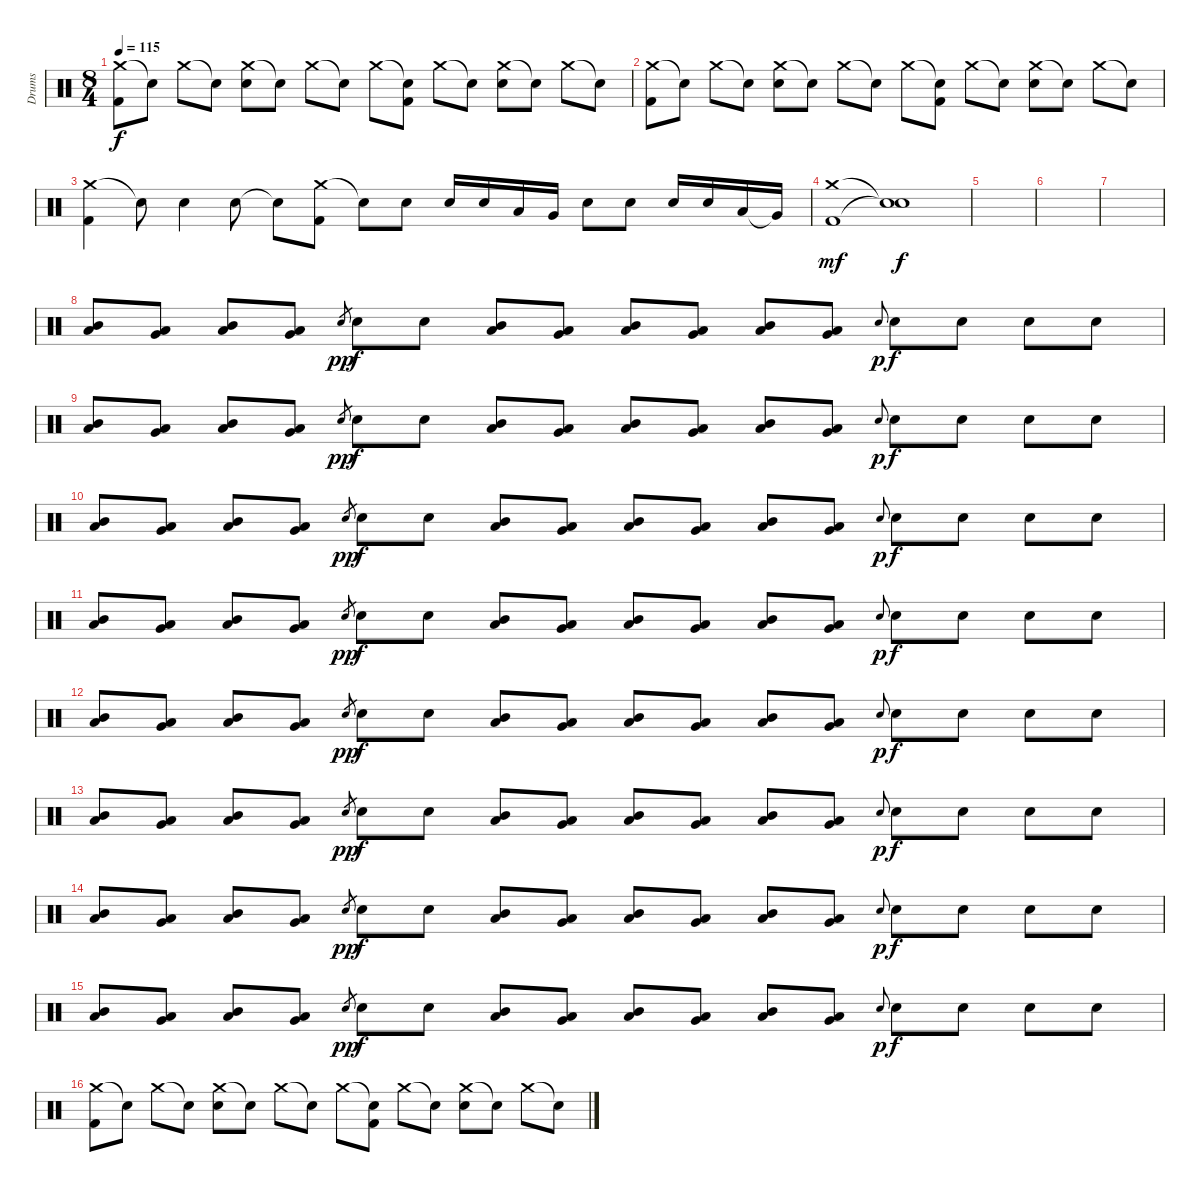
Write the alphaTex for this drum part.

\track ("Drums" "Drums") {instrument percussion}
\staff {score}
\articulation defaults
\ts (8 4)
\tempo 115
\clef neutral
\ks c
("Crash medium (hit)" "Kick (hit) 2").8{dy f} "Snare (hit)"{t}.8 "Crash medium (hit)".8 "Snare (hit)"{t}.8 ("Crash medium (hit)" "Electric Snare (hit)").8 "Snare (hit)"{t}.8 "Crash medium (hit)".8 "Snare (hit)"{t}.8 "Crash medium (hit)".8 ("Snare (hit)"{t} "Kick (hit) 2").8 "Crash medium (hit)".8 "Snare (hit)"{t}.8 ("Crash medium (hit)" "Electric Snare (hit)").8 "Snare (hit)"{t}.8 "Crash medium (hit)".8 "Snare (hit)"{t}.8 |
("Crash medium (hit)" "Kick (hit) 2").8 "Snare (hit)"{t}.8 "Crash medium (hit)".8 "Snare (hit)"{t}.8 ("Crash medium (hit)" "Electric Snare (hit)").8 "Snare (hit)"{t}.8 "Crash medium (hit)".8 "Snare (hit)"{t}.8 "Crash medium (hit)".8 ("Snare (hit)"{t} "Kick (hit) 2").8 "Crash medium (hit)".8 "Snare (hit)"{t}.8 ("Crash medium (hit)" "Electric Snare (hit)").8 "Snare (hit)"{t}.8 "Crash medium (hit)".8 "Snare (hit)"{t}.8 |
("Crash medium (hit)" "Kick (hit) 2").4 "Snare (hit)"{t}.8 "Electric Snare (hit)".4 "Electric Snare (hit)".8 "Snare (hit)"{t}.8 ("Crash medium (hit)" "Kick (hit) 2").8 "Snare (hit)"{t}.8 "Electric Snare (hit)".8 "Electric Snare (hit)".16 "Electric Snare (hit)".16 "Low Tom (hit)".16 "Very Low Tom (hit)".16 "Electric Snare (hit)".8 "Electric Snare (hit)".8 "Electric Snare (hit)".16 "Electric Snare (hit)".16 "Low Tom (hit)".16 "Very Low Tom (hit)"{t}.16 |
("Crash medium (hit)" "Kick (hit) 2").1{dy mf} ("Snare (hit)"{t} "Snare (hit)"{t}).1{dy f} |
|
|
|
("Low Tom (hit)" "Mid Tom (hit)").8 ("Low Tom (hit)" "Very Low Tom (hit)").8 ("Low Tom (hit)" "Mid Tom (hit)").8 ("Very Low Tom (hit)" "Low Tom (hit)").8 "Electric Snare (hit)".8{gr dy pp} "Electric Snare (hit)".8{dy f} "Electric Snare (hit)".8 ("Low Tom (hit)" "Mid Tom (hit)").8 ("Low Tom (hit)" "Very Low Tom (hit)").8 ("Low Tom (hit)" "Mid Tom (hit)").8 ("Very Low Tom (hit)" "Low Tom (hit)").8 ("Low Tom (hit)" "Mid Tom (hit)").8 ("Very Low Tom (hit)" "Low Tom (hit)").8 "Electric Snare (hit)".8{gr onbeat dy p} "Electric Snare (hit)".8{dy f} "Electric Snare (hit)".8 "Electric Snare (hit)".8 "Electric Snare (hit)".8 |
("Low Tom (hit)" "Mid Tom (hit)").8 ("Low Tom (hit)" "Very Low Tom (hit)").8 ("Low Tom (hit)" "Mid Tom (hit)").8 ("Very Low Tom (hit)" "Low Tom (hit)").8 "Electric Snare (hit)".8{gr dy pp} "Electric Snare (hit)".8{dy f} "Electric Snare (hit)".8 ("Low Tom (hit)" "Mid Tom (hit)").8 ("Low Tom (hit)" "Very Low Tom (hit)").8 ("Low Tom (hit)" "Mid Tom (hit)").8 ("Very Low Tom (hit)" "Low Tom (hit)").8 ("Low Tom (hit)" "Mid Tom (hit)").8 ("Very Low Tom (hit)" "Low Tom (hit)").8 "Electric Snare (hit)".8{gr onbeat dy p} "Electric Snare (hit)".8{dy f} "Electric Snare (hit)".8 "Electric Snare (hit)".8 "Electric Snare (hit)".8 |
("Low Tom (hit)" "Mid Tom (hit)").8 ("Low Tom (hit)" "Very Low Tom (hit)").8 ("Low Tom (hit)" "Mid Tom (hit)").8 ("Very Low Tom (hit)" "Low Tom (hit)").8 "Electric Snare (hit)".8{gr dy pp} "Electric Snare (hit)".8{dy f} "Electric Snare (hit)".8 ("Low Tom (hit)" "Mid Tom (hit)").8 ("Low Tom (hit)" "Very Low Tom (hit)").8 ("Low Tom (hit)" "Mid Tom (hit)").8 ("Very Low Tom (hit)" "Low Tom (hit)").8 ("Low Tom (hit)" "Mid Tom (hit)").8 ("Very Low Tom (hit)" "Low Tom (hit)").8 "Electric Snare (hit)".8{gr onbeat dy p} "Electric Snare (hit)".8{dy f} "Electric Snare (hit)".8 "Electric Snare (hit)".8 "Electric Snare (hit)".8 |
("Low Tom (hit)" "Mid Tom (hit)").8 ("Low Tom (hit)" "Very Low Tom (hit)").8 ("Low Tom (hit)" "Mid Tom (hit)").8 ("Very Low Tom (hit)" "Low Tom (hit)").8 "Electric Snare (hit)".8{gr dy pp} "Electric Snare (hit)".8{dy f} "Electric Snare (hit)".8 ("Low Tom (hit)" "Mid Tom (hit)").8 ("Low Tom (hit)" "Very Low Tom (hit)").8 ("Low Tom (hit)" "Mid Tom (hit)").8 ("Very Low Tom (hit)" "Low Tom (hit)").8 ("Low Tom (hit)" "Mid Tom (hit)").8 ("Very Low Tom (hit)" "Low Tom (hit)").8 "Electric Snare (hit)".8{gr onbeat dy p} "Electric Snare (hit)".8{dy f} "Electric Snare (hit)".8 "Electric Snare (hit)".8 "Electric Snare (hit)".8 |
("Low Tom (hit)" "Mid Tom (hit)").8 ("Low Tom (hit)" "Very Low Tom (hit)").8 ("Low Tom (hit)" "Mid Tom (hit)").8 ("Very Low Tom (hit)" "Low Tom (hit)").8 "Electric Snare (hit)".8{gr dy pp} "Electric Snare (hit)".8{dy f} "Electric Snare (hit)".8 ("Low Tom (hit)" "Mid Tom (hit)").8 ("Low Tom (hit)" "Very Low Tom (hit)").8 ("Low Tom (hit)" "Mid Tom (hit)").8 ("Very Low Tom (hit)" "Low Tom (hit)").8 ("Low Tom (hit)" "Mid Tom (hit)").8 ("Very Low Tom (hit)" "Low Tom (hit)").8 "Electric Snare (hit)".8{gr onbeat dy p} "Electric Snare (hit)".8{dy f} "Electric Snare (hit)".8 "Electric Snare (hit)".8 "Electric Snare (hit)".8 |
("Low Tom (hit)" "Mid Tom (hit)").8 ("Low Tom (hit)" "Very Low Tom (hit)").8 ("Low Tom (hit)" "Mid Tom (hit)").8 ("Very Low Tom (hit)" "Low Tom (hit)").8 "Electric Snare (hit)".8{gr dy pp} "Electric Snare (hit)".8{dy f} "Electric Snare (hit)".8 ("Low Tom (hit)" "Mid Tom (hit)").8 ("Low Tom (hit)" "Very Low Tom (hit)").8 ("Low Tom (hit)" "Mid Tom (hit)").8 ("Very Low Tom (hit)" "Low Tom (hit)").8 ("Low Tom (hit)" "Mid Tom (hit)").8 ("Very Low Tom (hit)" "Low Tom (hit)").8 "Electric Snare (hit)".8{gr onbeat dy p} "Electric Snare (hit)".8{dy f} "Electric Snare (hit)".8 "Electric Snare (hit)".8 "Electric Snare (hit)".8 |
("Low Tom (hit)" "Mid Tom (hit)").8 ("Low Tom (hit)" "Very Low Tom (hit)").8 ("Low Tom (hit)" "Mid Tom (hit)").8 ("Very Low Tom (hit)" "Low Tom (hit)").8 "Electric Snare (hit)".8{gr dy pp} "Electric Snare (hit)".8{dy f} "Electric Snare (hit)".8 ("Low Tom (hit)" "Mid Tom (hit)").8 ("Low Tom (hit)" "Very Low Tom (hit)").8 ("Low Tom (hit)" "Mid Tom (hit)").8 ("Very Low Tom (hit)" "Low Tom (hit)").8 ("Low Tom (hit)" "Mid Tom (hit)").8 ("Very Low Tom (hit)" "Low Tom (hit)").8 "Electric Snare (hit)".8{gr onbeat dy p} "Electric Snare (hit)".8{dy f} "Electric Snare (hit)".8 "Electric Snare (hit)".8 "Electric Snare (hit)".8 |
("Low Tom (hit)" "Mid Tom (hit)").8 ("Low Tom (hit)" "Very Low Tom (hit)").8 ("Low Tom (hit)" "Mid Tom (hit)").8 ("Very Low Tom (hit)" "Low Tom (hit)").8 "Electric Snare (hit)".8{gr dy pp} "Electric Snare (hit)".8{dy f} "Electric Snare (hit)".8 ("Low Tom (hit)" "Mid Tom (hit)").8 ("Low Tom (hit)" "Very Low Tom (hit)").8 ("Low Tom (hit)" "Mid Tom (hit)").8 ("Very Low Tom (hit)" "Low Tom (hit)").8 ("Low Tom (hit)" "Mid Tom (hit)").8 ("Very Low Tom (hit)" "Low Tom (hit)").8 "Electric Snare (hit)".8{gr onbeat dy p} "Electric Snare (hit)".8{dy f} "Electric Snare (hit)".8 "Electric Snare (hit)".8 "Electric Snare (hit)".8 |
("Crash medium (hit)" "Kick (hit) 2").8 "Snare (hit)"{t}.8 "Crash medium (hit)".8 "Snare (hit)"{t}.8 ("Crash medium (hit)" "Electric Snare (hit)").8 "Snare (hit)"{t}.8 "Crash medium (hit)".8 "Snare (hit)"{t}.8 "Crash medium (hit)".8 ("Snare (hit)"{t} "Kick (hit) 2").8 "Crash medium (hit)".8 "Snare (hit)"{t}.8 ("Crash medium (hit)" "Electric Snare (hit)").8 "Snare (hit)"{t}.8 "Crash medium (hit)".8 "Snare (hit)"{t}.8
